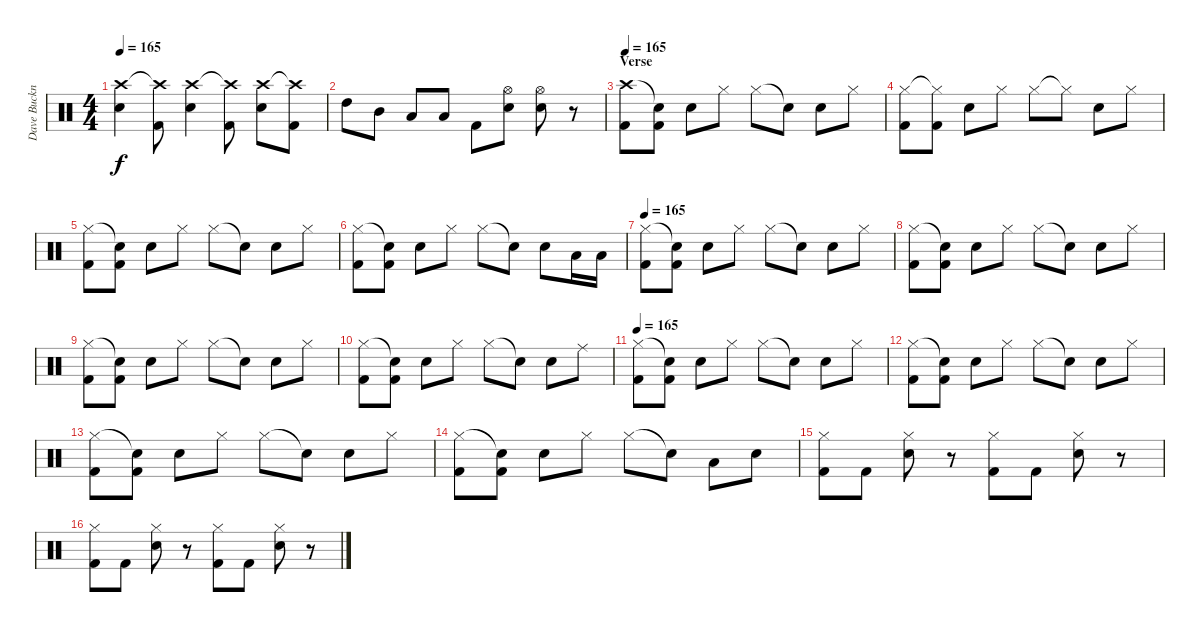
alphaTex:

\track ("Dave Buckner " "Dave Buckn") {instrument percussion}
\staff {score}
\articulation defaults
\ts (4 4)
\tempo 165
\clef neutral
\ks c
("Crash high (hit)" "Snare (hit) 2").4{dy f} ("Crash high (hit)"{t} "Kick (hit) 2").8 ("Crash high (hit)" "Snare (hit) 2").4 ("Crash high (hit)"{t} "Kick (hit) 2").8 ("Crash high (hit)" "Snare (hit) 2").8 ("Crash high (hit)"{t} "Kick (hit) 2").8 |
"High Tom (hit)".8 "Mid Tom (hit)".8 "Low Tom (hit)".8 "Low Tom (hit)".8 "Kick (hit) 2".8 ("Hi-Hat (open)" "Snare (hit) 2").8 ("Hi-Hat (open)" "Snare (hit) 2").8 r.8 |
\section ("" "Verse")
\tempo 165
("Crash high (hit)" "Kick (hit) 2").8 ("Snare (hit)"{t} "Kick (hit) 2").8 "Snare (hit) 2".8 "Hi-Hat (closed)".8 "Hi-Hat (closed)".8 "Snare (hit)"{t}.8 "Snare (hit) 2".8 "Hi-Hat (closed)".8 |
("Hi-Hat (closed)" "Kick (hit) 2").8 ("Hi-Hat (closed)"{t} "Kick (hit) 2").8 "Snare (hit) 2".8 "Hi-Hat (closed)".8 "Hi-Hat (closed)".8 "Hi-Hat (closed)"{t}.8 "Snare (hit) 2".8 "Hi-Hat (closed)".8 |
("Hi-Hat (closed)" "Kick (hit) 2").8 ("Snare (hit)"{t} "Kick (hit) 2").8 "Snare (hit) 2".8 "Hi-Hat (closed)".8 "Hi-Hat (closed)".8 "Snare (hit)"{t}.8 "Snare (hit) 2".8 "Hi-Hat (closed)".8 |
("Hi-Hat (closed)" "Kick (hit) 2").8 ("Snare (hit)"{t} "Kick (hit) 2").8 "Snare (hit) 2".8 "Hi-Hat (closed)".8 "Hi-Hat (closed)".8 "Snare (hit)"{t}.8 "Snare (hit) 2".8 "Low Tom (hit)".16 "Low Tom (hit)".16 |
\tempo 165
("Hi-Hat (closed)" "Kick (hit) 2").8 ("Snare (hit)"{t} "Kick (hit) 2").8 "Snare (hit) 2".8 "Hi-Hat (closed)".8 "Hi-Hat (closed)".8 "Snare (hit)"{t}.8 "Snare (hit) 2".8 "Hi-Hat (closed)".8 |
("Hi-Hat (closed)" "Kick (hit) 2").8 ("Snare (hit)"{t} "Kick (hit) 2").8 "Snare (hit) 2".8 "Hi-Hat (closed)".8 "Hi-Hat (closed)".8 "Snare (hit)"{t}.8 "Snare (hit) 2".8 "Hi-Hat (closed)".8 |
("Hi-Hat (closed)" "Kick (hit) 2").8 ("Snare (hit)"{t} "Kick (hit) 2").8 "Snare (hit) 2".8 "Hi-Hat (closed)".8 "Hi-Hat (closed)".8 "Snare (hit)"{t}.8 "Snare (hit) 2".8 "Hi-Hat (closed)".8 |
("Hi-Hat (closed)" "Kick (hit) 2").8 ("Snare (hit)"{t} "Kick (hit) 2").8 "Snare (hit) 2".8 "Hi-Hat (closed)".8 "Hi-Hat (closed)".8 "Snare (hit)"{t}.8 "Snare (hit) 2".8 "Ride (middle)".8 |
\tempo 165
("Hi-Hat (closed)" "Kick (hit) 2").8 ("Snare (hit)"{t} "Kick (hit) 2").8 "Snare (hit) 2".8 "Hi-Hat (closed)".8 "Hi-Hat (closed)".8 "Snare (hit)"{t}.8 "Snare (hit) 2".8 "Hi-Hat (closed)".8 |
("Hi-Hat (closed)" "Kick (hit) 2").8 ("Snare (hit)"{t} "Kick (hit) 2").8 "Snare (hit) 2".8 "Hi-Hat (closed)".8 "Hi-Hat (closed)".8 "Snare (hit)"{t}.8 "Snare (hit) 2".8 "Hi-Hat (closed)".8 |
("Hi-Hat (closed)" "Kick (hit) 2").8 ("Snare (hit)"{t} "Kick (hit) 2").8 "Snare (hit) 2".8 "Hi-Hat (closed)".8 "Hi-Hat (closed)".8 "Snare (hit)"{t}.8 "Snare (hit) 2".8 "Hi-Hat (closed)".8 |
("Hi-Hat (closed)" "Kick (hit) 2").8 ("Snare (hit)"{t} "Kick (hit) 2").8 "Snare (hit) 2".8 "Hi-Hat (closed)".8 "Hi-Hat (closed)".8 "Snare (hit)"{t}.8 "Low Tom (hit)".8 "Snare (hit) 2".8 |
("Hi-Hat (closed)" "Kick (hit) 2").8 "Kick (hit) 2".8 ("Hi-Hat (closed)" "Snare (hit) 2").8 r.8 ("Hi-Hat (closed)" "Kick (hit) 2").8 "Kick (hit) 2".8 ("Hi-Hat (closed)" "Snare (hit) 2").8 r.8 |
("Hi-Hat (closed)" "Kick (hit) 2").8 "Kick (hit) 2".8 ("Hi-Hat (closed)" "Snare (hit) 2").8 r.8 ("Hi-Hat (closed)" "Kick (hit) 2").8 "Kick (hit) 2".8 ("Hi-Hat (closed)" "Snare (hit) 2").8 r.8
